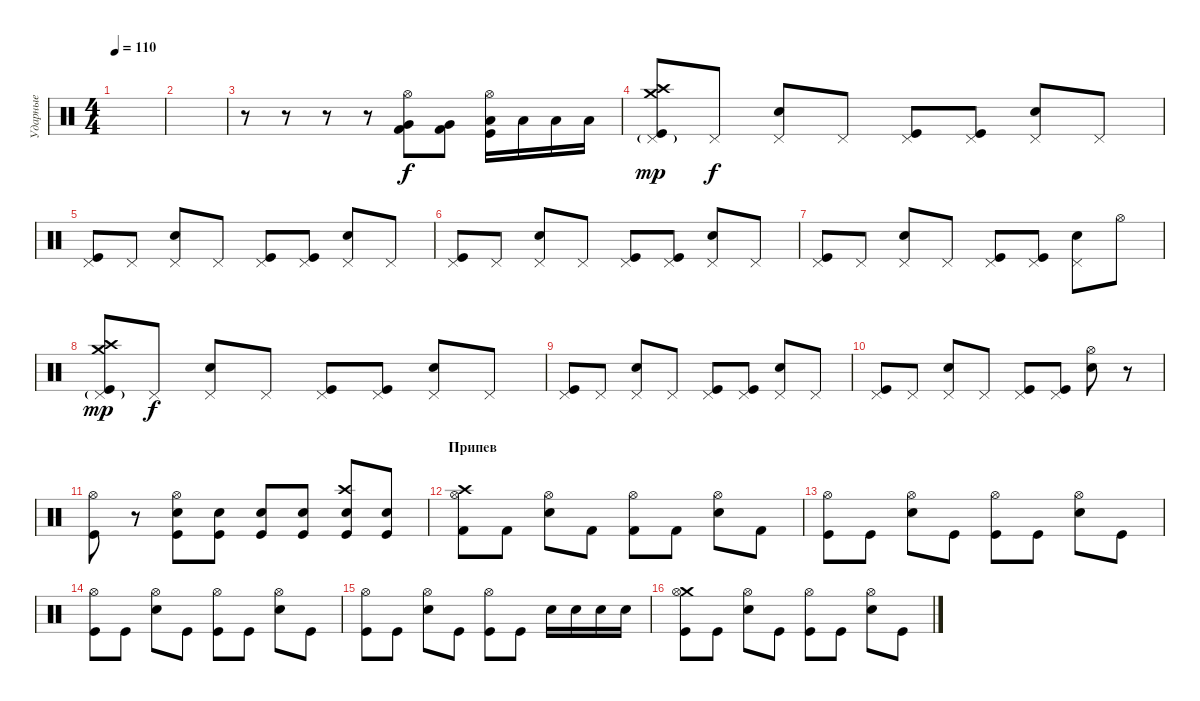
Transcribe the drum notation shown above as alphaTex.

\track ("Ударные" "Ударные") {instrument percussion}
\staff {score}
\articulation defaults
\ts (4 4)
\tempo 110
\clef neutral
\ks c
|
|
r.8 r.8 r.8 r.8 ("Hi-Hat (open)" "Very Low Tom (hit)" "Kick (hit) 2").8 ("Very Low Tom (hit)" "Kick (hit) 2").8 ("Hi-Hat (open)" "Low Floor Tom (hit)" "Kick (hit)").16 "Low Floor Tom (hit)".16 "Low Floor Tom (hit)".16 "Low Floor Tom (hit)".16 |
("Crash high (hit)" "Crash medium (hit)" "Pedal Hi-Hat (hit)"{g} "Kick (hit)").8{dy mp} "Pedal Hi-Hat (hit)".8{dy f} ("Pedal Hi-Hat (hit)" "Electric Snare (hit)").8 "Pedal Hi-Hat (hit)".8 ("Pedal Hi-Hat (hit)" "Kick (hit)").8 ("Pedal Hi-Hat (hit)" "Kick (hit)").8 ("Pedal Hi-Hat (hit)" "Electric Snare (hit)").8 "Pedal Hi-Hat (hit)".8 |
("Pedal Hi-Hat (hit)" "Kick (hit)").8 "Pedal Hi-Hat (hit)".8 ("Pedal Hi-Hat (hit)" "Electric Snare (hit)").8 "Pedal Hi-Hat (hit)".8 ("Pedal Hi-Hat (hit)" "Kick (hit)").8 ("Pedal Hi-Hat (hit)" "Kick (hit)").8 ("Pedal Hi-Hat (hit)" "Electric Snare (hit)").8 "Pedal Hi-Hat (hit)".8 |
("Pedal Hi-Hat (hit)" "Kick (hit)").8 "Pedal Hi-Hat (hit)".8 ("Pedal Hi-Hat (hit)" "Electric Snare (hit)").8 "Pedal Hi-Hat (hit)".8 ("Pedal Hi-Hat (hit)" "Kick (hit)").8 ("Pedal Hi-Hat (hit)" "Kick (hit)").8 ("Pedal Hi-Hat (hit)" "Electric Snare (hit)").8 "Pedal Hi-Hat (hit)".8 |
("Pedal Hi-Hat (hit)" "Kick (hit)").8 "Pedal Hi-Hat (hit)".8 ("Pedal Hi-Hat (hit)" "Electric Snare (hit)").8 "Pedal Hi-Hat (hit)".8 ("Pedal Hi-Hat (hit)" "Kick (hit)").8 ("Pedal Hi-Hat (hit)" "Kick (hit)").8 ("Pedal Hi-Hat (hit)" "Electric Snare (hit)").8 "Hi-Hat (open)".8 |
("Crash high (hit)" "Crash medium (hit)" "Pedal Hi-Hat (hit)"{g} "Kick (hit)").8{dy mp} "Pedal Hi-Hat (hit)".8{dy f} ("Pedal Hi-Hat (hit)" "Electric Snare (hit)").8 "Pedal Hi-Hat (hit)".8 ("Pedal Hi-Hat (hit)" "Kick (hit)").8 ("Pedal Hi-Hat (hit)" "Kick (hit)").8 ("Pedal Hi-Hat (hit)" "Electric Snare (hit)").8 "Pedal Hi-Hat (hit)".8 |
("Pedal Hi-Hat (hit)" "Kick (hit)").8 "Pedal Hi-Hat (hit)".8 ("Pedal Hi-Hat (hit)" "Electric Snare (hit)").8 "Pedal Hi-Hat (hit)".8 ("Pedal Hi-Hat (hit)" "Kick (hit)").8 ("Pedal Hi-Hat (hit)" "Kick (hit)").8 ("Pedal Hi-Hat (hit)" "Electric Snare (hit)").8 "Pedal Hi-Hat (hit)".8 |
("Pedal Hi-Hat (hit)" "Kick (hit)").8 "Pedal Hi-Hat (hit)".8 ("Pedal Hi-Hat (hit)" "Electric Snare (hit)").8 "Pedal Hi-Hat (hit)".8 ("Pedal Hi-Hat (hit)" "Kick (hit)").8 ("Pedal Hi-Hat (hit)" "Kick (hit)").8 ("Hi-Hat (open)" "Electric Snare (hit)").8 r.8 |
("Hi-Hat (open)" "Kick (hit)").8 r.8 ("Hi-Hat (open)" "Electric Snare (hit)" "Kick (hit)").8 ("Electric Snare (hit)" "Kick (hit)").8 ("Electric Snare (hit)" "Kick (hit)").8 ("Electric Snare (hit)" "Kick (hit)").8 ("Crash high (hit)" "Electric Snare (hit)" "Kick (hit)").8 ("Electric Snare (hit)" "Kick (hit)").8 |
\section ("" "Припев")
("Crash high (hit)" "Hi-Hat (open)" "Kick (hit) 2").8 "Kick (hit) 2".8 ("Hi-Hat (open)" "Electric Snare (hit)").8 "Kick (hit) 2".8 ("Hi-Hat (open)" "Kick (hit) 2").8 "Kick (hit) 2".8 ("Hi-Hat (open)" "Electric Snare (hit)").8 "Kick (hit) 2".8 |
("Hi-Hat (open)" "Kick (hit)").8 "Kick (hit)".8 ("Hi-Hat (open)" "Electric Snare (hit)").8 "Kick (hit)".8 ("Hi-Hat (open)" "Kick (hit)").8 "Kick (hit)".8 ("Hi-Hat (open)" "Electric Snare (hit)").8 "Kick (hit)".8 |
("Hi-Hat (open)" "Kick (hit)").8 "Kick (hit)".8 ("Hi-Hat (open)" "Electric Snare (hit)").8 "Kick (hit)".8 ("Hi-Hat (open)" "Kick (hit)").8 "Kick (hit)".8 ("Hi-Hat (open)" "Electric Snare (hit)").8 "Kick (hit)".8 |
("Hi-Hat (open)" "Kick (hit)").8 "Kick (hit)".8 ("Hi-Hat (open)" "Electric Snare (hit)").8 "Kick (hit)".8 ("Hi-Hat (open)" "Kick (hit)").8 "Kick (hit)".8 "Electric Snare (hit)".16 "Electric Snare (hit)".16 "Electric Snare (hit)".16 "Electric Snare (hit)".16 |
("Crash medium (hit)" "Hi-Hat (open)" "Kick (hit)").8 "Kick (hit)".8 ("Hi-Hat (open)" "Electric Snare (hit)").8 "Kick (hit)".8 ("Hi-Hat (open)" "Kick (hit)").8 "Kick (hit)".8 ("Hi-Hat (open)" "Electric Snare (hit)").8 "Kick (hit)".8
